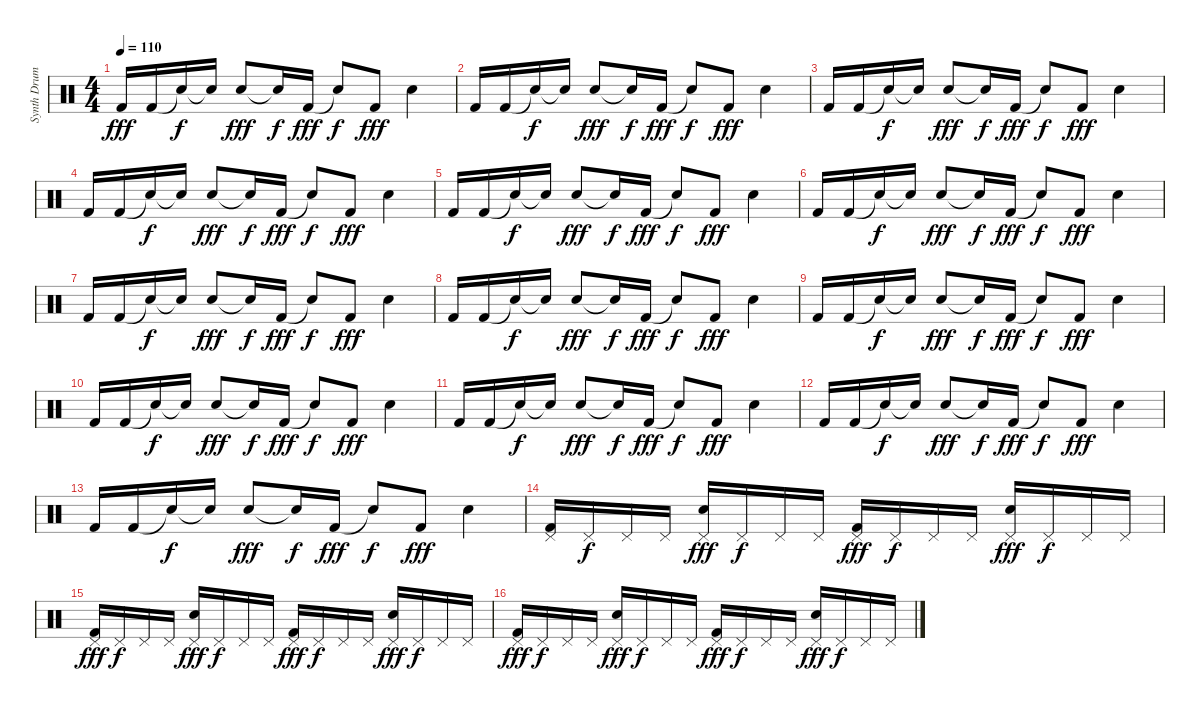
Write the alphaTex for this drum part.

\track ("Synth Drums" "Synth Drum") {instrument percussion}
\staff {score}
\articulation defaults
\ts (4 4)
\tempo 110
\clef neutral
\ks c "Kick (hit) 2".16{dy fff} "Kick (hit) 2".16 "Snare (hit)"{t}.16{dy f} "Snare (hit)"{t}.16 "Snare (hit) 2".8{dy fff} "Snare (hit)"{t}.16{dy f} "Kick (hit) 2".16{dy fff} "Snare (hit)"{t}.8{dy f} "Kick (hit) 2".8{dy fff} "Snare (hit) 2".4
|
"Kick (hit) 2".16 "Kick (hit) 2".16 "Snare (hit)"{t}.16{dy f} "Snare (hit)"{t}.16 "Snare (hit) 2".8{dy fff} "Snare (hit)"{t}.16{dy f} "Kick (hit) 2".16{dy fff} "Snare (hit)"{t}.8{dy f} "Kick (hit) 2".8{dy fff} "Snare (hit) 2".4 |
"Kick (hit) 2".16 "Kick (hit) 2".16 "Snare (hit)"{t}.16{dy f} "Snare (hit)"{t}.16 "Snare (hit) 2".8{dy fff} "Snare (hit)"{t}.16{dy f} "Kick (hit) 2".16{dy fff} "Snare (hit)"{t}.8{dy f} "Kick (hit) 2".8{dy fff} "Snare (hit) 2".4 |
"Kick (hit) 2".16 "Kick (hit) 2".16 "Snare (hit)"{t}.16{dy f} "Snare (hit)"{t}.16 "Snare (hit) 2".8{dy fff} "Snare (hit)"{t}.16{dy f} "Kick (hit) 2".16{dy fff} "Snare (hit)"{t}.8{dy f} "Kick (hit) 2".8{dy fff} "Snare (hit) 2".4 |
"Kick (hit) 2".16 "Kick (hit) 2".16 "Snare (hit)"{t}.16{dy f} "Snare (hit)"{t}.16 "Snare (hit) 2".8{dy fff} "Snare (hit)"{t}.16{dy f} "Kick (hit) 2".16{dy fff} "Snare (hit)"{t}.8{dy f} "Kick (hit) 2".8{dy fff} "Snare (hit) 2".4 |
"Kick (hit) 2".16 "Kick (hit) 2".16 "Snare (hit)"{t}.16{dy f} "Snare (hit)"{t}.16 "Snare (hit) 2".8{dy fff} "Snare (hit)"{t}.16{dy f} "Kick (hit) 2".16{dy fff} "Snare (hit)"{t}.8{dy f} "Kick (hit) 2".8{dy fff} "Snare (hit) 2".4 |
"Kick (hit) 2".16 "Kick (hit) 2".16 "Snare (hit)"{t}.16{dy f} "Snare (hit)"{t}.16 "Snare (hit) 2".8{dy fff} "Snare (hit)"{t}.16{dy f} "Kick (hit) 2".16{dy fff} "Snare (hit)"{t}.8{dy f} "Kick (hit) 2".8{dy fff} "Snare (hit) 2".4 |
"Kick (hit) 2".16 "Kick (hit) 2".16 "Snare (hit)"{t}.16{dy f} "Snare (hit)"{t}.16 "Snare (hit) 2".8{dy fff} "Snare (hit)"{t}.16{dy f} "Kick (hit) 2".16{dy fff} "Snare (hit)"{t}.8{dy f} "Kick (hit) 2".8{dy fff} "Snare (hit) 2".4 |
"Kick (hit) 2".16 "Kick (hit) 2".16 "Snare (hit)"{t}.16{dy f} "Snare (hit)"{t}.16 "Snare (hit) 2".8{dy fff} "Snare (hit)"{t}.16{dy f} "Kick (hit) 2".16{dy fff} "Snare (hit)"{t}.8{dy f} "Kick (hit) 2".8{dy fff} "Snare (hit) 2".4 |
"Kick (hit) 2".16 "Kick (hit) 2".16 "Snare (hit)"{t}.16{dy f} "Snare (hit)"{t}.16 "Snare (hit) 2".8{dy fff} "Snare (hit)"{t}.16{dy f} "Kick (hit) 2".16{dy fff} "Snare (hit)"{t}.8{dy f} "Kick (hit) 2".8{dy fff} "Snare (hit) 2".4 |
"Kick (hit) 2".16 "Kick (hit) 2".16 "Snare (hit)"{t}.16{dy f} "Snare (hit)"{t}.16 "Snare (hit) 2".8{dy fff} "Snare (hit)"{t}.16{dy f} "Kick (hit) 2".16{dy fff} "Snare (hit)"{t}.8{dy f} "Kick (hit) 2".8{dy fff} "Snare (hit) 2".4 |
"Kick (hit) 2".16 "Kick (hit) 2".16 "Snare (hit)"{t}.16{dy f} "Snare (hit)"{t}.16 "Snare (hit) 2".8{dy fff} "Snare (hit)"{t}.16{dy f} "Kick (hit) 2".16{dy fff} "Snare (hit)"{t}.8{dy f} "Kick (hit) 2".8{dy fff} "Snare (hit) 2".4 |
"Kick (hit) 2".16 "Kick (hit) 2".16 "Snare (hit)"{t}.16{dy f} "Snare (hit)"{t}.16 "Snare (hit) 2".8{dy fff} "Snare (hit)"{t}.16{dy f} "Kick (hit) 2".16{dy fff} "Snare (hit)"{t}.8{dy f} "Kick (hit) 2".8{dy fff} "Snare (hit) 2".4 |
("Pedal Hi-Hat (hit)" "Kick (hit) 2").16 "Pedal Hi-Hat (hit)".16{dy f} "Pedal Hi-Hat (hit)".16 "Pedal Hi-Hat (hit)".16 ("Pedal Hi-Hat (hit)" "Snare (hit) 2").16{dy fff} "Pedal Hi-Hat (hit)".16{dy f} "Pedal Hi-Hat (hit)".16 "Pedal Hi-Hat (hit)".16 ("Pedal Hi-Hat (hit)" "Kick (hit) 2").16{dy fff} "Pedal Hi-Hat (hit)".16{dy f} "Pedal Hi-Hat (hit)".16 "Pedal Hi-Hat (hit)".16 ("Pedal Hi-Hat (hit)" "Snare (hit) 2").16{dy fff} "Pedal Hi-Hat (hit)".16{dy f} "Pedal Hi-Hat (hit)".16 "Pedal Hi-Hat (hit)".16 |
("Pedal Hi-Hat (hit)" "Kick (hit) 2").16{dy fff} "Pedal Hi-Hat (hit)".16{dy f} "Pedal Hi-Hat (hit)".16 "Pedal Hi-Hat (hit)".16 ("Pedal Hi-Hat (hit)" "Snare (hit) 2").16{dy fff} "Pedal Hi-Hat (hit)".16{dy f} "Pedal Hi-Hat (hit)".16 "Pedal Hi-Hat (hit)".16 ("Pedal Hi-Hat (hit)" "Kick (hit) 2").16{dy fff} "Pedal Hi-Hat (hit)".16{dy f} "Pedal Hi-Hat (hit)".16 "Pedal Hi-Hat (hit)".16 ("Pedal Hi-Hat (hit)" "Snare (hit) 2").16{dy fff} "Pedal Hi-Hat (hit)".16{dy f} "Pedal Hi-Hat (hit)".16 "Pedal Hi-Hat (hit)".16 |
("Pedal Hi-Hat (hit)" "Kick (hit) 2").16{dy fff} "Pedal Hi-Hat (hit)".16{dy f} "Pedal Hi-Hat (hit)".16 "Pedal Hi-Hat (hit)".16 ("Pedal Hi-Hat (hit)" "Snare (hit) 2").16{dy fff} "Pedal Hi-Hat (hit)".16{dy f} "Pedal Hi-Hat (hit)".16 "Pedal Hi-Hat (hit)".16 ("Pedal Hi-Hat (hit)" "Kick (hit) 2").16{dy fff} "Pedal Hi-Hat (hit)".16{dy f} "Pedal Hi-Hat (hit)".16 "Pedal Hi-Hat (hit)".16 ("Pedal Hi-Hat (hit)" "Snare (hit) 2").16{dy fff} "Pedal Hi-Hat (hit)".16{dy f} "Pedal Hi-Hat (hit)".16 "Pedal Hi-Hat (hit)".16
